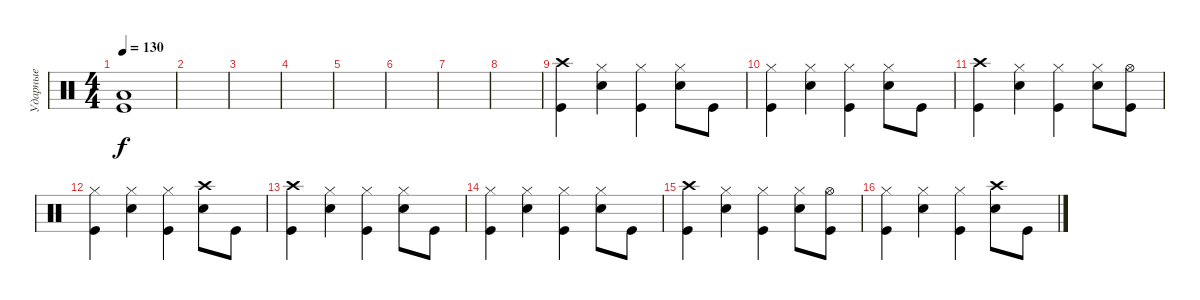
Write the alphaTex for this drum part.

\track ("Ударные" "Ударные") {instrument percussion}
\staff {score}
\articulation defaults
\ts (4 4)
\tempo 130
\clef neutral
\ks c
("Low Tom (hit)" "Kick (hit)").1{dy f} |
|
|
|
|
|
|
|
("Crash high (hit)" "Kick (hit)").4 ("Hi-Hat (closed)" "Electric Snare (hit)").4 ("Hi-Hat (closed)" "Kick (hit)").4 ("Hi-Hat (closed)" "Electric Snare (hit)").8 "Kick (hit)".8 |
("Hi-Hat (closed)" "Kick (hit)").4 ("Hi-Hat (closed)" "Electric Snare (hit)").4 ("Hi-Hat (closed)" "Kick (hit)").4 ("Hi-Hat (closed)" "Electric Snare (hit)").8 "Kick (hit)".8 |
("Crash high (hit)" "Kick (hit)").4 ("Hi-Hat (closed)" "Electric Snare (hit)").4 ("Hi-Hat (closed)" "Kick (hit)").4 ("Hi-Hat (closed)" "Electric Snare (hit)").8 ("Hi-Hat (open)" "Kick (hit)").8 |
("Hi-Hat (closed)" "Kick (hit)").4 ("Hi-Hat (closed)" "Electric Snare (hit)").4 ("Hi-Hat (closed)" "Kick (hit)").4 ("Crash high (hit)" "Electric Snare (hit)").8 "Kick (hit)".8 |
("Crash high (hit)" "Kick (hit)").4 ("Hi-Hat (closed)" "Electric Snare (hit)").4 ("Hi-Hat (closed)" "Kick (hit)").4 ("Hi-Hat (closed)" "Electric Snare (hit)").8 "Kick (hit)".8 |
("Hi-Hat (closed)" "Kick (hit)").4 ("Hi-Hat (closed)" "Electric Snare (hit)").4 ("Hi-Hat (closed)" "Kick (hit)").4 ("Hi-Hat (closed)" "Electric Snare (hit)").8 "Kick (hit)".8 |
("Crash high (hit)" "Kick (hit)").4 ("Hi-Hat (closed)" "Electric Snare (hit)").4 ("Hi-Hat (closed)" "Kick (hit)").4 ("Hi-Hat (closed)" "Electric Snare (hit)").8 ("Hi-Hat (open)" "Kick (hit)").8 |
("Hi-Hat (closed)" "Kick (hit)").4 ("Hi-Hat (closed)" "Electric Snare (hit)").4 ("Hi-Hat (closed)" "Kick (hit)").4 ("Crash high (hit)" "Electric Snare (hit)").8 "Kick (hit)".8
